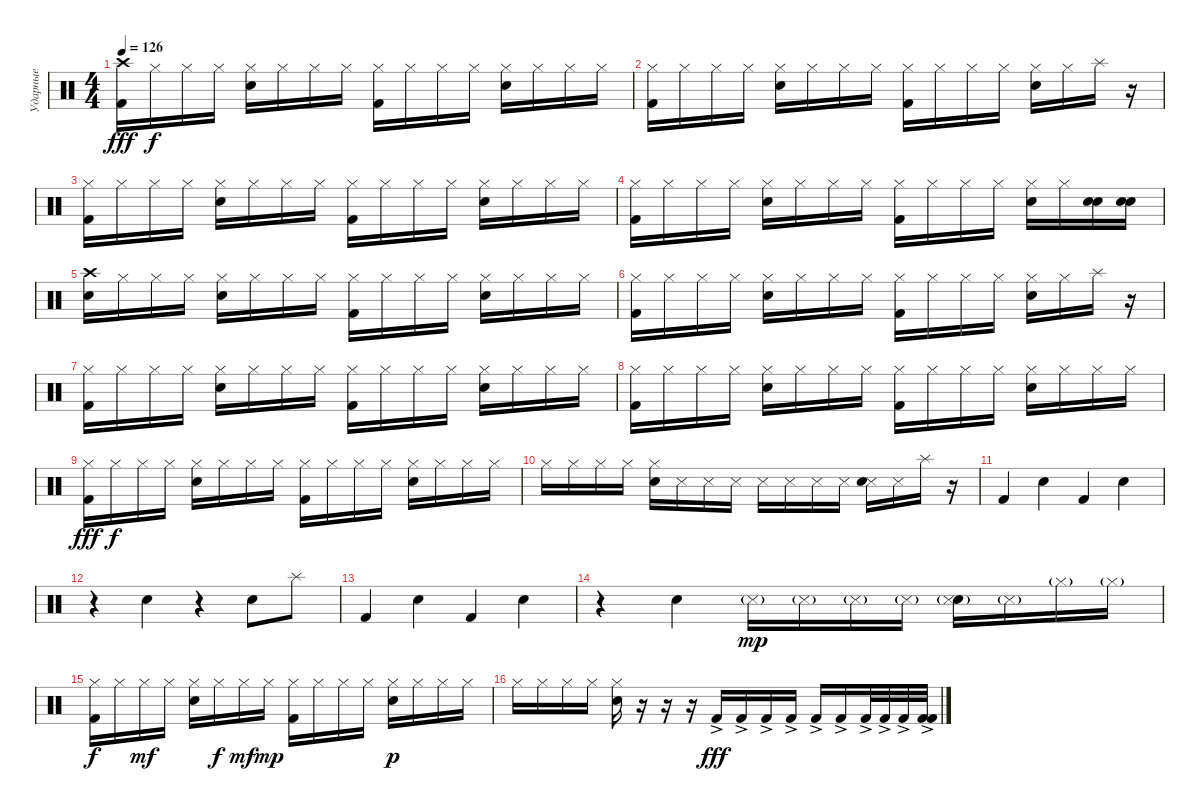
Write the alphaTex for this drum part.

\track ("Ударные" "Ударные") {instrument percussion}
\staff {score}
\articulation defaults
\ts (4 4)
\tempo 126
\clef neutral
\ks c
("Crash high (hit)" "Kick (hit) 2").16{dy fff balance 8} "Hi-Hat (closed)".16{dy f} "Hi-Hat (closed)".16 "Hi-Hat (closed)".16 ("Hi-Hat (closed)" "Snare (hit) 2").16 "Hi-Hat (closed)".16 "Hi-Hat (closed)".16 "Hi-Hat (closed)".16 ("Hi-Hat (closed)" "Kick (hit) 2").16 "Hi-Hat (closed)".16 "Hi-Hat (closed)".16 "Hi-Hat (closed)".16 ("Hi-Hat (closed)" "Snare (hit) 2").16 "Hi-Hat (closed)".16 "Hi-Hat (closed)".16 "Hi-Hat (closed)".16 |
("Hi-Hat (closed)" "Kick (hit) 2").16 "Hi-Hat (closed)".16 "Hi-Hat (closed)".16 "Hi-Hat (closed)".16 ("Hi-Hat (closed)" "Snare (hit) 2").16 "Hi-Hat (closed)".16 "Hi-Hat (closed)".16 "Hi-Hat (closed)".16 ("Hi-Hat (closed)" "Kick (hit) 2").16 "Hi-Hat (closed)".16 "Hi-Hat (closed)".16 "Hi-Hat (closed)".16 ("Hi-Hat (closed)" "Snare (hit) 2").16 "Hi-Hat (closed)".16 "Splash (hit)".16 r.16 |
("Hi-Hat (closed)" "Kick (hit) 2").16 "Hi-Hat (closed)".16 "Hi-Hat (closed)".16 "Hi-Hat (closed)".16 ("Hi-Hat (closed)" "Snare (hit) 2").16 "Hi-Hat (closed)".16 "Hi-Hat (closed)".16 "Hi-Hat (closed)".16 ("Hi-Hat (closed)" "Kick (hit) 2").16 "Hi-Hat (closed)".16 "Hi-Hat (closed)".16 "Hi-Hat (closed)".16 ("Hi-Hat (closed)" "Snare (hit) 2").16 "Hi-Hat (closed)".16 "Hi-Hat (closed)".16 "Hi-Hat (closed)".16 |
("Hi-Hat (closed)" "Kick (hit) 2").16 "Hi-Hat (closed)".16 "Hi-Hat (closed)".16 "Hi-Hat (closed)".16 ("Hi-Hat (closed)" "Snare (hit) 2").16 "Hi-Hat (closed)".16 "Hi-Hat (closed)".16 "Hi-Hat (closed)".16 ("Hi-Hat (closed)" "Kick (hit) 2").16 "Hi-Hat (closed)".16 "Hi-Hat (closed)".16 "Hi-Hat (closed)".16 ("Hi-Hat (closed)" "Snare (hit) 2").16 "Hi-Hat (closed)".16 ("Snare (hit) 2" "Electric Snare (hit)").16{balance 0} ("Snare (hit) 2" "Electric Snare (hit)").16 |
("Snare (hit) 2" "Crash high (hit)").16{balance 8} "Hi-Hat (closed)".16 "Hi-Hat (closed)".16 "Hi-Hat (closed)".16 ("Hi-Hat (closed)" "Snare (hit) 2").16 "Hi-Hat (closed)".16 "Hi-Hat (closed)".16 "Hi-Hat (closed)".16 ("Hi-Hat (closed)" "Kick (hit) 2").16 "Hi-Hat (closed)".16 "Hi-Hat (closed)".16 "Hi-Hat (closed)".16 ("Hi-Hat (closed)" "Snare (hit) 2").16 "Hi-Hat (closed)".16 "Hi-Hat (closed)".16 "Hi-Hat (closed)".16 |
("Hi-Hat (closed)" "Kick (hit) 2").16 "Hi-Hat (closed)".16 "Hi-Hat (closed)".16 "Hi-Hat (closed)".16 ("Hi-Hat (closed)" "Snare (hit) 2").16 "Hi-Hat (closed)".16 "Hi-Hat (closed)".16 "Hi-Hat (closed)".16 ("Hi-Hat (closed)" "Kick (hit) 2").16 "Hi-Hat (closed)".16 "Hi-Hat (closed)".16 "Hi-Hat (closed)".16 ("Hi-Hat (closed)" "Snare (hit) 2").16 "Hi-Hat (closed)".16 "Splash (hit)".16 r.16 |
("Hi-Hat (closed)" "Kick (hit) 2").16 "Hi-Hat (closed)".16 "Hi-Hat (closed)".16 "Hi-Hat (closed)".16 ("Hi-Hat (closed)" "Snare (hit) 2").16 "Hi-Hat (closed)".16 "Hi-Hat (closed)".16 "Hi-Hat (closed)".16 ("Hi-Hat (closed)" "Kick (hit) 2").16 "Hi-Hat (closed)".16 "Hi-Hat (closed)".16 "Hi-Hat (closed)".16 ("Hi-Hat (closed)" "Snare (hit) 2").16 "Hi-Hat (closed)".16 "Hi-Hat (closed)".16 "Hi-Hat (closed)".16 |
("Hi-Hat (closed)" "Kick (hit) 2").16 "Hi-Hat (closed)".16 "Hi-Hat (closed)".16 "Hi-Hat (closed)".16 ("Hi-Hat (closed)" "Snare (hit) 2").16 "Hi-Hat (closed)".16 "Hi-Hat (closed)".16 "Hi-Hat (closed)".16 ("Hi-Hat (closed)" "Kick (hit) 2").16 "Hi-Hat (closed)".16 "Hi-Hat (closed)".16 "Hi-Hat (closed)".16 ("Hi-Hat (closed)" "Snare (hit) 2").16 "Hi-Hat (closed)".16 "Hi-Hat (closed)".16 "Hi-Hat (closed)".16 |
("Hi-Hat (closed)" "Kick (hit) 2").16{dy fff} "Hi-Hat (closed)".16{dy f} "Hi-Hat (closed)".16 "Hi-Hat (closed)".16 ("Hi-Hat (closed)" "Snare (hit) 2").16 "Hi-Hat (closed)".16 "Hi-Hat (closed)".16 "Hi-Hat (closed)".16 ("Hi-Hat (closed)" "Kick (hit) 2").16 "Hi-Hat (closed)".16 "Hi-Hat (closed)".16 "Hi-Hat (closed)".16 ("Hi-Hat (closed)" "Snare (hit) 2").16 "Hi-Hat (closed)".16 "Hi-Hat (closed)".16 "Hi-Hat (closed)".16 |
"Hi-Hat (closed)".16{volume 9} "Hi-Hat (closed)".16 "Hi-Hat (closed)".16 "Hi-Hat (closed)".16 ("Hi-Hat (closed)" "Snare (hit) 2").16 "Snare (side stick) 3".16 "Snare (side stick) 3".16 "Snare (side stick) 3".16 "Snare (side stick) 3".16 "Snare (side stick) 3".16 "Snare (side stick) 3".16 "Snare (side stick) 3".16 ("Snare (side stick) 3" "Snare (hit) 2").16 "Snare (side stick) 3".16 "Splash (hit)".16{volume 11} r.16 |
"Kick (hit) 2".4 "Snare (hit) 2".4 "Kick (hit) 2".4 "Snare (hit) 2".4 |
r.4 "Snare (hit) 2".4 r.4 "Snare (hit) 2".8 "Splash (hit)".8 |
"Kick (hit) 2".4 "Snare (hit) 2".4 "Kick (hit) 2".4 "Snare (hit) 2".4 |
r.4 "Snare (hit) 2".4 "Snare (side stick) 3"{g}.16{dy mp} "Snare (side stick) 3"{g}.16 "Snare (side stick) 3"{g}.16 "Snare (side stick) 3"{g}.16 ("Snare (hit) 2" "Snare (side stick) 3"{g}).16 "Snare (side stick) 3"{g}.16 "Hi-Hat (closed)"{g}.16 "Hi-Hat (closed)"{g}.16 |
("Kick (hit) 2" "Hi-Hat (closed)").16{dy f} "Hi-Hat (closed)".16 "Hi-Hat (closed)".16{dy mf} "Hi-Hat (closed)".16 ("Snare (hit) 2" "Hi-Hat (closed)").16 "Hi-Hat (closed)".16{dy f} "Hi-Hat (closed)".16{dy mf} "Hi-Hat (closed)".16{dy mp} ("Kick (hit) 2" "Hi-Hat (closed)").16 "Hi-Hat (closed)".16 "Hi-Hat (closed)".16 "Hi-Hat (closed)".16 ("Snare (hit) 2" "Hi-Hat (closed)").16{dy p} "Hi-Hat (closed)".16 "Hi-Hat (closed)".16 "Hi-Hat (closed)".16 |
"Hi-Hat (closed)".16 "Hi-Hat (closed)".16 "Hi-Hat (closed)".16 "Hi-Hat (closed)".16 ("Snare (hit) 2" "Hi-Hat (closed)").16 r.16 r.16 r.16 "Kick (hit) 2"{ac}.16{dy fff volume 16 balance 0} "Kick (hit) 2"{ac}.16{balance 1} "Kick (hit) 2"{ac}.16{balance 3} "Kick (hit) 2"{ac}.16{balance 5} "Kick (hit) 2"{ac}.16{balance 8} "Kick (hit) 2"{ac}.16{balance 11} "Kick (hit) 2"{ac}.32{balance 13} "Kick (hit) 2"{ac}.32{balance 14} "Kick (hit) 2"{ac}.32{balance 16} ("Kick (hit) 2"{ac} "Kick (hit) 2"{ac}).32{balance 16}
